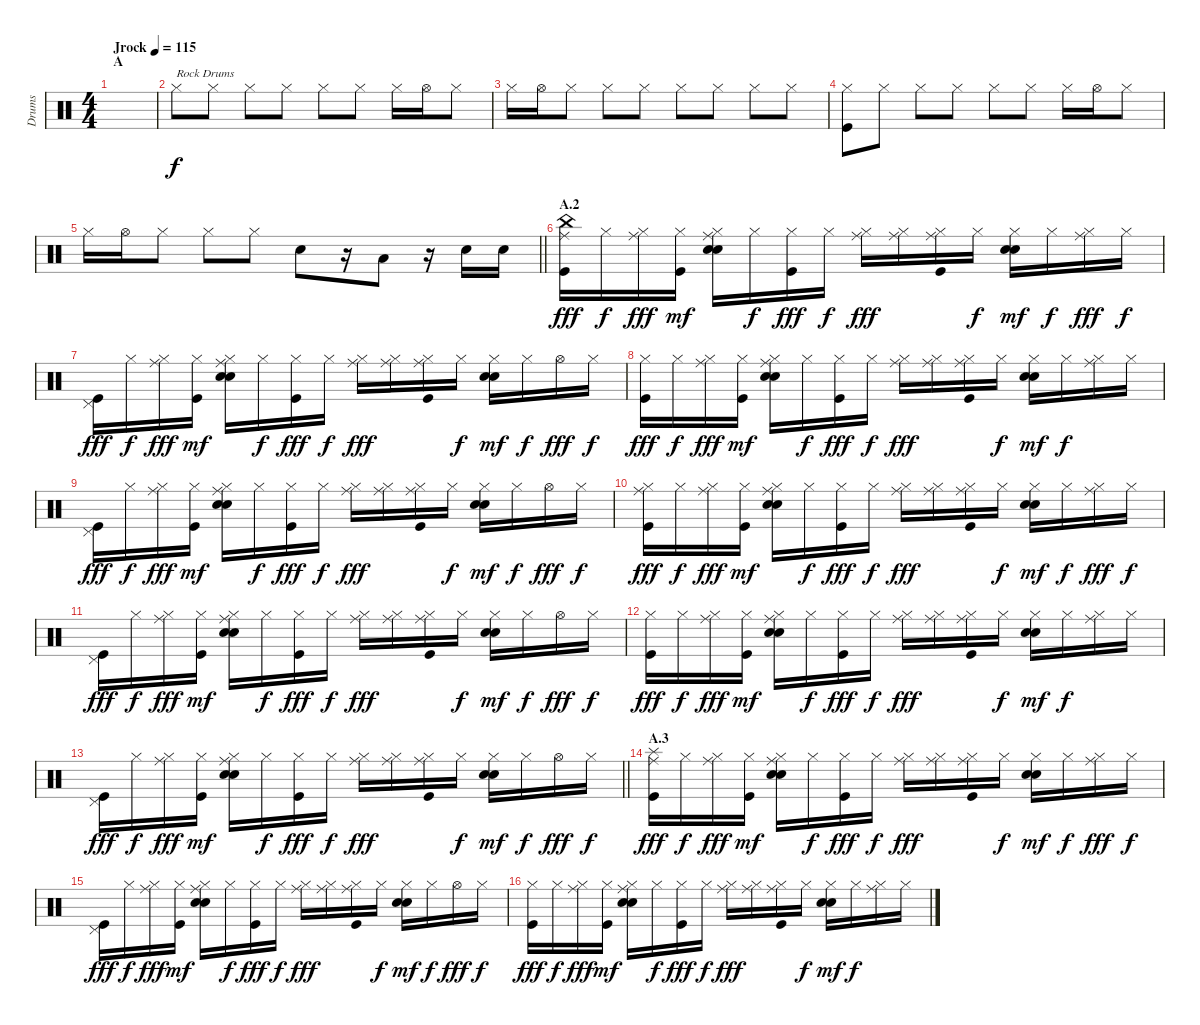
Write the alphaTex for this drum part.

\track ("Drums" "Drums") {instrument percussion}
\staff {score}
\articulation defaults
\ts (4 4)
\section ("" "A")
\tempo (115 "Jrock")
\clef neutral
\ks c
|
"Hi-Hat (closed)".8{txt "Rock Drums"} "Hi-Hat (closed)".8 "Hi-Hat (closed)".8 "Hi-Hat (closed)".8 "Hi-Hat (closed)".8 "Hi-Hat (closed)".8 "Hi-Hat (closed)".16 "Hi-Hat (open)".16 "Hi-Hat (closed)".8 |
"Hi-Hat (closed)".16 "Hi-Hat (open)".16 "Hi-Hat (closed)".8 "Hi-Hat (closed)".8 "Hi-Hat (closed)".8 "Hi-Hat (closed)".8 "Hi-Hat (closed)".8 "Hi-Hat (closed)".8 "Hi-Hat (closed)".8 |
("Hi-Hat (closed)" "Kick (hit)").8 "Hi-Hat (closed)".8 "Hi-Hat (closed)".8 "Hi-Hat (closed)".8 "Hi-Hat (closed)".8 "Hi-Hat (closed)".8 "Hi-Hat (closed)".16 "Hi-Hat (open)".16 "Hi-Hat (closed)".8 |
\barLineRight lightlight "Hi-Hat (closed)".16 "Hi-Hat (open)".16 "Hi-Hat (closed)".8 "Hi-Hat (closed)".8 "Hi-Hat (closed)".8 "Snare (hit) 2".8
r.16 "Low Tom (hit)".8 r.16 "Electric Snare (hit)".16 "Electric Snare (hit)".16 |
\section ("" "A.2")
("China (hit)" "Ride (middle)" "Kick (hit)").16{dy fff} "Hi-Hat (closed)".16{dy f} ("Hi-Hat (closed)" "Ride (middle)").16{dy fff} ("Hi-Hat (closed)" "Kick (hit)").16{dy mf} ("Hi-Hat (closed)" "Ride (middle)" "Electric Snare (hit)" "Snare (hit) 2").16 "Hi-Hat (closed)".16{dy f} ("Hi-Hat (closed)" "Kick (hit)").16{dy fff} "Hi-Hat (closed)".16{dy f} ("Hi-Hat (closed)" "Ride (middle)").16{dy fff} ("Hi-Hat (closed)" "Ride (middle)").16 ("Hi-Hat (closed)" "Ride (middle)" "Kick (hit)").16 "Hi-Hat (closed)".16{dy f} ("Hi-Hat (closed)" "Electric Snare (hit)" "Snare (hit) 2").16{dy mf} "Hi-Hat (closed)".16{dy f} ("Hi-Hat (closed)" "Ride (middle)").16{dy fff} "Hi-Hat (closed)".16{dy f} |
("Pedal Hi-Hat (hit)" "Kick (hit)").16{dy fff} "Hi-Hat (closed)".16{dy f} ("Hi-Hat (closed)" "Ride (middle)").16{dy fff} ("Hi-Hat (closed)" "Kick (hit)").16{dy mf} ("Hi-Hat (closed)" "Ride (middle)" "Electric Snare (hit)" "Snare (hit) 2").16 "Hi-Hat (closed)".16{dy f} ("Hi-Hat (closed)" "Kick (hit)").16{dy fff} "Hi-Hat (closed)".16{dy f} ("Hi-Hat (closed)" "Ride (middle)").16{dy fff} ("Hi-Hat (closed)" "Ride (middle)").16 ("Hi-Hat (closed)" "Ride (middle)" "Kick (hit)").16 "Hi-Hat (closed)".16{dy f} ("Hi-Hat (closed)" "Electric Snare (hit)" "Snare (hit) 2").16{dy mf} "Hi-Hat (closed)".16{dy f} "Hi-Hat (open)".16{dy fff} "Hi-Hat (closed)".16{dy f} |
("Hi-Hat (closed)" "Kick (hit)").16{dy fff} "Hi-Hat (closed)".16{dy f} ("Hi-Hat (closed)" "Ride (middle)").16{dy fff} ("Hi-Hat (closed)" "Kick (hit)").16{dy mf} ("Hi-Hat (closed)" "Ride (middle)" "Electric Snare (hit)" "Snare (hit) 2").16 "Hi-Hat (closed)".16{dy f} ("Hi-Hat (closed)" "Kick (hit)").16{dy fff} "Hi-Hat (closed)".16{dy f} ("Hi-Hat (closed)" "Ride (middle)").16{dy fff} ("Hi-Hat (closed)" "Ride (middle)").16 ("Hi-Hat (closed)" "Ride (middle)" "Kick (hit)").16 "Hi-Hat (closed)".16{dy f} ("Hi-Hat (closed)" "Electric Snare (hit)" "Snare (hit) 2").16{dy mf} "Hi-Hat (closed)".16{dy f} ("Hi-Hat (closed)" "Ride (middle)").16 "Hi-Hat (closed)".16 |
("Pedal Hi-Hat (hit)" "Kick (hit)").16{dy fff} "Hi-Hat (closed)".16{dy f} ("Hi-Hat (closed)" "Ride (middle)").16{dy fff} ("Hi-Hat (closed)" "Kick (hit)").16{dy mf} ("Hi-Hat (closed)" "Ride (middle)" "Electric Snare (hit)" "Snare (hit) 2").16 "Hi-Hat (closed)".16{dy f} ("Hi-Hat (closed)" "Kick (hit)").16{dy fff} "Hi-Hat (closed)".16{dy f} ("Hi-Hat (closed)" "Ride (middle)").16{dy fff} ("Hi-Hat (closed)" "Ride (middle)").16 ("Hi-Hat (closed)" "Ride (middle)" "Kick (hit)").16 "Hi-Hat (closed)".16{dy f} ("Hi-Hat (closed)" "Electric Snare (hit)" "Snare (hit) 2").16{dy mf} "Hi-Hat (closed)".16{dy f} "Hi-Hat (open)".16{dy fff} "Hi-Hat (closed)".16{dy f} |
("Hi-Hat (closed)" "Ride (middle)" "Kick (hit)").16{dy fff} "Hi-Hat (closed)".16{dy f} ("Hi-Hat (closed)" "Ride (middle)").16{dy fff} ("Hi-Hat (closed)" "Kick (hit)").16{dy mf} ("Hi-Hat (closed)" "Ride (middle)" "Electric Snare (hit)" "Snare (hit) 2").16 "Hi-Hat (closed)".16{dy f} ("Hi-Hat (closed)" "Kick (hit)").16{dy fff} "Hi-Hat (closed)".16{dy f} ("Hi-Hat (closed)" "Ride (middle)").16{dy fff} ("Hi-Hat (closed)" "Ride (middle)").16 ("Hi-Hat (closed)" "Ride (middle)" "Kick (hit)").16 "Hi-Hat (closed)".16{dy f} ("Hi-Hat (closed)" "Electric Snare (hit)" "Snare (hit) 2").16{dy mf} "Hi-Hat (closed)".16{dy f} ("Hi-Hat (closed)" "Ride (middle)").16{dy fff} "Hi-Hat (closed)".16{dy f} |
("Pedal Hi-Hat (hit)" "Kick (hit)").16{dy fff} "Hi-Hat (closed)".16{dy f} ("Hi-Hat (closed)" "Ride (middle)").16{dy fff} ("Hi-Hat (closed)" "Kick (hit)").16{dy mf} ("Hi-Hat (closed)" "Ride (middle)" "Electric Snare (hit)" "Snare (hit) 2").16 "Hi-Hat (closed)".16{dy f} ("Hi-Hat (closed)" "Kick (hit)").16{dy fff} "Hi-Hat (closed)".16{dy f} ("Hi-Hat (closed)" "Ride (middle)").16{dy fff} ("Hi-Hat (closed)" "Ride (middle)").16 ("Hi-Hat (closed)" "Ride (middle)" "Kick (hit)").16 "Hi-Hat (closed)".16{dy f} ("Hi-Hat (closed)" "Electric Snare (hit)" "Snare (hit) 2").16{dy mf} "Hi-Hat (closed)".16{dy f} "Hi-Hat (open)".16{dy fff} "Hi-Hat (closed)".16{dy f} |
("Hi-Hat (closed)" "Kick (hit)").16{dy fff} "Hi-Hat (closed)".16{dy f} ("Hi-Hat (closed)" "Ride (middle)").16{dy fff} ("Hi-Hat (closed)" "Kick (hit)").16{dy mf} ("Hi-Hat (closed)" "Ride (middle)" "Electric Snare (hit)" "Snare (hit) 2").16 "Hi-Hat (closed)".16{dy f} ("Hi-Hat (closed)" "Kick (hit)").16{dy fff} "Hi-Hat (closed)".16{dy f} ("Hi-Hat (closed)" "Ride (middle)").16{dy fff} ("Hi-Hat (closed)" "Ride (middle)").16 ("Hi-Hat (closed)" "Ride (middle)" "Kick (hit)").16 "Hi-Hat (closed)".16{dy f} ("Hi-Hat (closed)" "Electric Snare (hit)" "Snare (hit) 2").16{dy mf} "Hi-Hat (closed)".16{dy f} ("Hi-Hat (closed)" "Ride (middle)").16 "Hi-Hat (closed)".16 |
\barLineRight lightlight
("Pedal Hi-Hat (hit)" "Kick (hit)").16{dy fff} "Hi-Hat (closed)".16{dy f} ("Hi-Hat (closed)" "Ride (middle)").16{dy fff} ("Hi-Hat (closed)" "Kick (hit)").16{dy mf} ("Hi-Hat (closed)" "Ride (middle)" "Electric Snare (hit)" "Snare (hit) 2").16 "Hi-Hat (closed)".16{dy f} ("Hi-Hat (closed)" "Kick (hit)").16{dy fff} "Hi-Hat (closed)".16{dy f} ("Hi-Hat (closed)" "Ride (middle)").16{dy fff} ("Hi-Hat (closed)" "Ride (middle)").16 ("Hi-Hat (closed)" "Ride (middle)" "Kick (hit)").16 "Hi-Hat (closed)".16{dy f} ("Hi-Hat (closed)" "Electric Snare (hit)" "Snare (hit) 2").16{dy mf} "Hi-Hat (closed)".16{dy f} "Hi-Hat (open)".16{dy fff} "Hi-Hat (closed)".16{dy f} |
\section ("" "A.3")
("Splash (hit)" "Ride (middle)" "Kick (hit)").16{dy fff} "Hi-Hat (closed)".16{dy f} ("Hi-Hat (closed)" "Ride (middle)").16{dy fff} ("Hi-Hat (closed)" "Kick (hit)").16{dy mf} ("Hi-Hat (closed)" "Ride (middle)" "Electric Snare (hit)" "Snare (hit) 2").16 "Hi-Hat (closed)".16{dy f} ("Hi-Hat (closed)" "Kick (hit)").16{dy fff} "Hi-Hat (closed)".16{dy f} ("Hi-Hat (closed)" "Ride (middle)").16{dy fff} ("Hi-Hat (closed)" "Ride (middle)").16 ("Hi-Hat (closed)" "Ride (middle)" "Kick (hit)").16 "Hi-Hat (closed)".16{dy f} ("Hi-Hat (closed)" "Electric Snare (hit)" "Snare (hit) 2").16{dy mf} "Hi-Hat (closed)".16{dy f} ("Hi-Hat (closed)" "Ride (middle)").16{dy fff} "Hi-Hat (closed)".16{dy f} |
("Pedal Hi-Hat (hit)" "Kick (hit)").16{dy fff} "Hi-Hat (closed)".16{dy f} ("Hi-Hat (closed)" "Ride (middle)").16{dy fff} ("Hi-Hat (closed)" "Kick (hit)").16{dy mf} ("Hi-Hat (closed)" "Ride (middle)" "Electric Snare (hit)" "Snare (hit) 2").16 "Hi-Hat (closed)".16{dy f} ("Hi-Hat (closed)" "Kick (hit)").16{dy fff} "Hi-Hat (closed)".16{dy f} ("Hi-Hat (closed)" "Ride (middle)").16{dy fff} ("Hi-Hat (closed)" "Ride (middle)").16 ("Hi-Hat (closed)" "Ride (middle)" "Kick (hit)").16 "Hi-Hat (closed)".16{dy f} ("Hi-Hat (closed)" "Electric Snare (hit)" "Snare (hit) 2").16{dy mf} "Hi-Hat (closed)".16{dy f} "Hi-Hat (open)".16{dy fff} "Hi-Hat (closed)".16{dy f} |
("Hi-Hat (closed)" "Kick (hit)").16{dy fff} "Hi-Hat (closed)".16{dy f} ("Hi-Hat (closed)" "Ride (middle)").16{dy fff} ("Hi-Hat (closed)" "Kick (hit)").16{dy mf} ("Hi-Hat (closed)" "Ride (middle)" "Electric Snare (hit)" "Snare (hit) 2").16 "Hi-Hat (closed)".16{dy f} ("Hi-Hat (closed)" "Kick (hit)").16{dy fff} "Hi-Hat (closed)".16{dy f} ("Hi-Hat (closed)" "Ride (middle)").16{dy fff} ("Hi-Hat (closed)" "Ride (middle)").16 ("Hi-Hat (closed)" "Ride (middle)" "Kick (hit)").16 "Hi-Hat (closed)".16{dy f} ("Hi-Hat (closed)" "Electric Snare (hit)" "Snare (hit) 2").16{dy mf} "Hi-Hat (closed)".16{dy f} ("Hi-Hat (closed)" "Ride (middle)").16 "Hi-Hat (closed)".16
